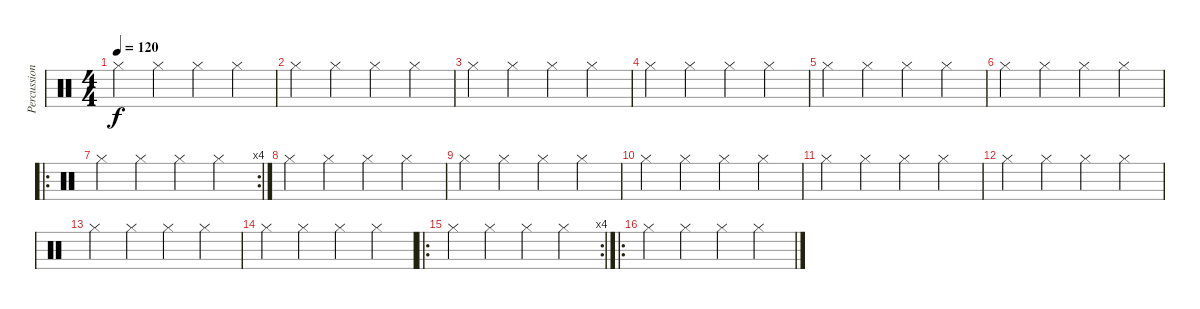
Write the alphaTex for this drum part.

\track ("Percussioni" "Percussion") {instrument percussion}
\staff {score}
\articulation defaults
\ts (4 4)
\tempo 120
\clef neutral
\ks c "Hi-Hat (closed)".4{dy f} "Hi-Hat (closed)".4 "Hi-Hat (closed)".4 "Hi-Hat (closed)".4
|
"Hi-Hat (closed)".4 "Hi-Hat (closed)".4 "Hi-Hat (closed)".4 "Hi-Hat (closed)".4 |
"Hi-Hat (closed)".4 "Hi-Hat (closed)".4 "Hi-Hat (closed)".4 "Hi-Hat (closed)".4 |
"Hi-Hat (closed)".4 "Hi-Hat (closed)".4 "Hi-Hat (closed)".4 "Hi-Hat (closed)".4 |
"Hi-Hat (closed)".4 "Hi-Hat (closed)".4 "Hi-Hat (closed)".4 "Hi-Hat (closed)".4 |
"Hi-Hat (closed)".4 "Hi-Hat (closed)".4 "Hi-Hat (closed)".4 "Hi-Hat (closed)".4 |
\ro
\rc 4 "Hi-Hat (closed)".4 "Hi-Hat (closed)".4 "Hi-Hat (closed)".4 "Hi-Hat (closed)".4
|
"Hi-Hat (closed)".4 "Hi-Hat (closed)".4 "Hi-Hat (closed)".4 "Hi-Hat (closed)".4 |
"Hi-Hat (closed)".4 "Hi-Hat (closed)".4 "Hi-Hat (closed)".4 "Hi-Hat (closed)".4 |
"Hi-Hat (closed)".4 "Hi-Hat (closed)".4 "Hi-Hat (closed)".4 "Hi-Hat (closed)".4 |
"Hi-Hat (closed)".4 "Hi-Hat (closed)".4 "Hi-Hat (closed)".4 "Hi-Hat (closed)".4 |
"Hi-Hat (closed)".4 "Hi-Hat (closed)".4 "Hi-Hat (closed)".4 "Hi-Hat (closed)".4 |
"Hi-Hat (closed)".4 "Hi-Hat (closed)".4 "Hi-Hat (closed)".4 "Hi-Hat (closed)".4 |
"Hi-Hat (closed)".4 "Hi-Hat (closed)".4 "Hi-Hat (closed)".4 "Hi-Hat (closed)".4 |
\ro
\rc 4 "Hi-Hat (closed)".4 "Hi-Hat (closed)".4 "Hi-Hat (closed)".4 "Hi-Hat (closed)".4
|
\ro "Hi-Hat (closed)".4 "Hi-Hat (closed)".4 "Hi-Hat (closed)".4 "Hi-Hat (closed)".4
